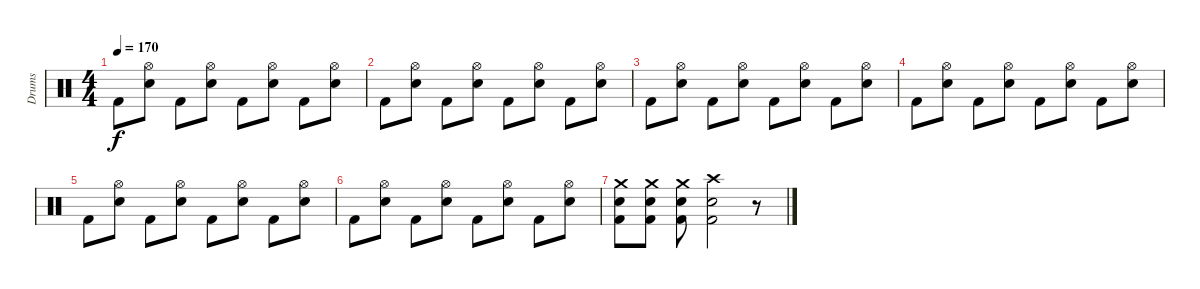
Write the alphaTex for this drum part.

\track ("Drums" "Drums") {instrument percussion}
\staff {score}
\articulation defaults
\ts (4 4)
\tempo 170
\clef neutral
\ks c "Kick (hit) 2".8{dy f}
("Hi-Hat (open)" "Snare (hit) 2").8 "Kick (hit) 2".8 ("Hi-Hat (open)" "Snare (hit) 2").8 "Kick (hit) 2".8 ("Hi-Hat (open)" "Snare (hit) 2").8 "Kick (hit) 2".8 ("Hi-Hat (open)" "Snare (hit) 2").8 |
"Kick (hit) 2".8 ("Hi-Hat (open)" "Snare (hit) 2").8 "Kick (hit) 2".8 ("Hi-Hat (open)" "Snare (hit) 2").8 "Kick (hit) 2".8 ("Hi-Hat (open)" "Snare (hit) 2").8 "Kick (hit) 2".8 ("Hi-Hat (open)" "Snare (hit) 2").8 |
"Kick (hit) 2".8 ("Hi-Hat (open)" "Snare (hit) 2").8 "Kick (hit) 2".8 ("Hi-Hat (open)" "Snare (hit) 2").8 "Kick (hit) 2".8 ("Hi-Hat (open)" "Snare (hit) 2").8 "Kick (hit) 2".8 ("Hi-Hat (open)" "Snare (hit) 2").8 |
"Kick (hit) 2".8 ("Hi-Hat (open)" "Snare (hit) 2").8 "Kick (hit) 2".8 ("Hi-Hat (open)" "Snare (hit) 2").8 "Kick (hit) 2".8 ("Hi-Hat (open)" "Snare (hit) 2").8 "Kick (hit) 2".8 ("Hi-Hat (open)" "Snare (hit) 2").8 |
"Kick (hit) 2".8 ("Hi-Hat (open)" "Snare (hit) 2").8 "Kick (hit) 2".8 ("Hi-Hat (open)" "Snare (hit) 2").8 "Kick (hit) 2".8 ("Hi-Hat (open)" "Snare (hit) 2").8 "Kick (hit) 2".8 ("Hi-Hat (open)" "Snare (hit) 2").8 |
"Kick (hit) 2".8 ("Hi-Hat (open)" "Snare (hit) 2").8 "Kick (hit) 2".8 ("Hi-Hat (open)" "Snare (hit) 2").8 "Kick (hit) 2".8 ("Hi-Hat (open)" "Snare (hit) 2").8 "Kick (hit) 2".8 ("Hi-Hat (open)" "Snare (hit) 2").8 |
("Crash medium (hit)" "Snare (hit) 2" "Kick (hit) 2").8 ("Crash medium (hit)" "Snare (hit) 2" "Kick (hit) 2").8 ("Crash medium (hit)" "Snare (hit) 2" "Kick (hit) 2").8 ("Crash high (hit)" "Snare (hit) 2" "Kick (hit) 2").2 r.8
